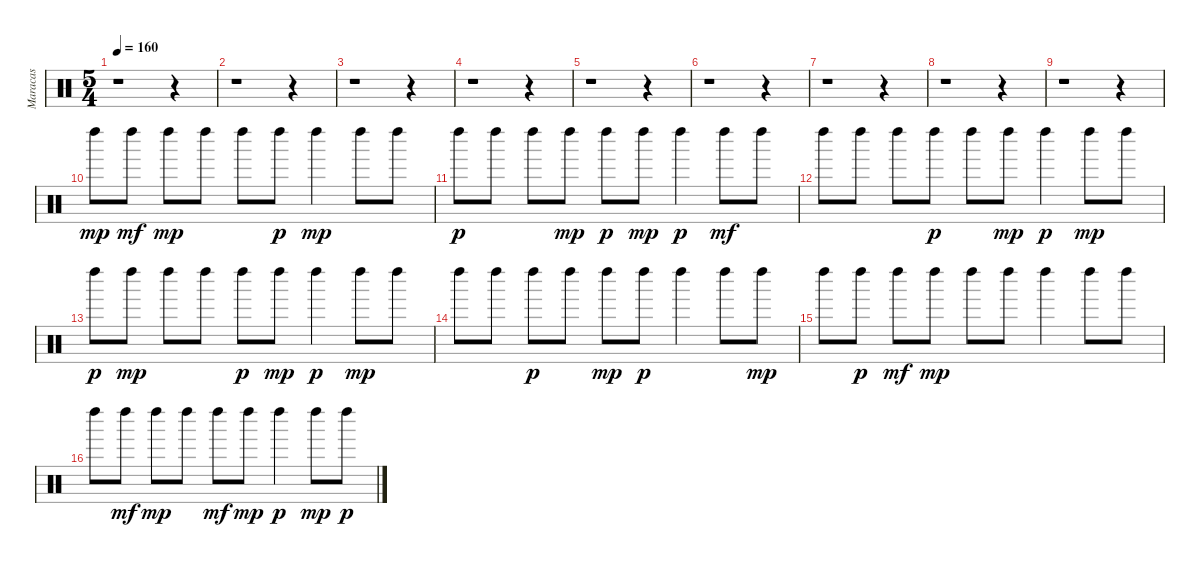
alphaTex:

\track ("Maracas" "Maracas") {instrument percussion}
\staff {score}
\articulation defaults
\ts (5 4)
\tempo 160
\clef neutral
\ks c
r.1{dy p} r.4 |
r.1 r.4 |
r.1 r.4 |
r.1 r.4 |
r.1 r.4 |
r.1 r.4 |
r.1 r.4 |
r.1 r.4 |
r.1 r.4 |
"Left Maraca (hit)".8{dy mp} "Left Maraca (hit)".8{dy mf} "Left Maraca (hit)".8{dy mp} "Left Maraca (hit)".8 "Left Maraca (hit)".8 "Left Maraca (hit)".8{dy p} "Left Maraca (hit)".4{dy mp} "Left Maraca (hit)".8 "Left Maraca (hit)".8 |
"Left Maraca (hit)".8{dy p} "Left Maraca (hit)".8 "Left Maraca (hit)".8 "Left Maraca (hit)".8{dy mp} "Left Maraca (hit)".8{dy p} "Left Maraca (hit)".8{dy mp} "Left Maraca (hit)".4{dy p} "Left Maraca (hit)".8{dy mf} "Left Maraca (hit)".8 |
"Left Maraca (hit)".8 "Left Maraca (hit)".8 "Left Maraca (hit)".8 "Left Maraca (hit)".8{dy p} "Left Maraca (hit)".8 "Left Maraca (hit)".8{dy mp} "Left Maraca (hit)".4{dy p} "Left Maraca (hit)".8{dy mp} "Left Maraca (hit)".8 |
"Left Maraca (hit)".8{dy p} "Left Maraca (hit)".8{dy mp} "Left Maraca (hit)".8 "Left Maraca (hit)".8 "Left Maraca (hit)".8{dy p} "Left Maraca (hit)".8{dy mp} "Left Maraca (hit)".4{dy p} "Left Maraca (hit)".8{dy mp} "Left Maraca (hit)".8 |
"Left Maraca (hit)".8 "Left Maraca (hit)".8 "Left Maraca (hit)".8{dy p} "Left Maraca (hit)".8 "Left Maraca (hit)".8{dy mp} "Left Maraca (hit)".8{dy p} "Left Maraca (hit)".4 "Left Maraca (hit)".8 "Left Maraca (hit)".8{dy mp} |
"Left Maraca (hit)".8 "Left Maraca (hit)".8{dy p} "Left Maraca (hit)".8{dy mf} "Left Maraca (hit)".8{dy mp} "Left Maraca (hit)".8 "Left Maraca (hit)".8 "Left Maraca (hit)".4 "Left Maraca (hit)".8 "Left Maraca (hit)".8 |
"Left Maraca (hit)".8 "Left Maraca (hit)".8{dy mf} "Left Maraca (hit)".8{dy mp} "Left Maraca (hit)".8 "Left Maraca (hit)".8{dy mf} "Left Maraca (hit)".8{dy mp} "Left Maraca (hit)".4{dy p} "Left Maraca (hit)".8{dy mp} "Left Maraca (hit)".8{dy p}
